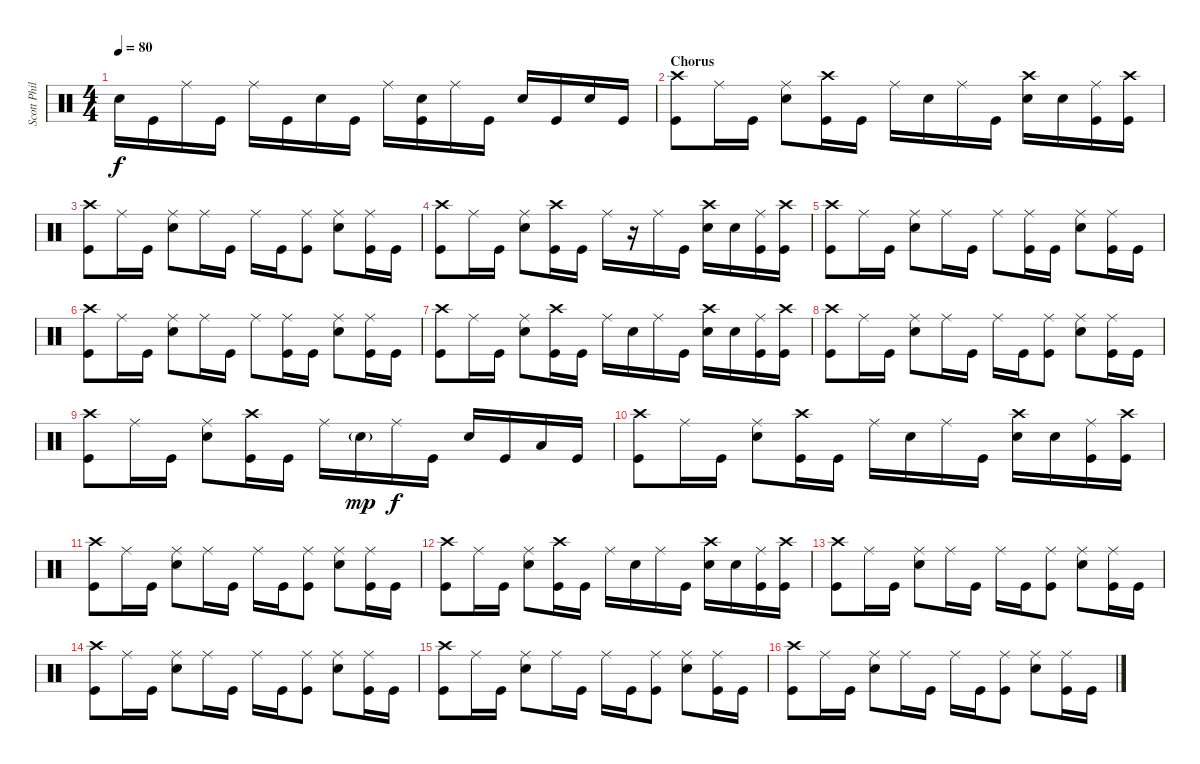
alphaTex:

\track ("Scott Phillips" "Scott Phil") {instrument percussion}
\staff {score}
\articulation defaults
\ts (4 4)
\tempo 80
\clef neutral
\ks c "Snare (hit) 2".16{dy f} "Kick (hit)".16 "Ride (middle)".16 "Kick (hit)".16 "Ride (middle)".16 "Kick (hit)".16 "Snare (hit) 2".16 "Kick (hit)".16 "Ride (middle)".16
("Snare (hit) 2" "Kick (hit)").16 "Ride (middle)".16 "Kick (hit)".16 "Snare (hit) 2".16 "Kick (hit)".16 "Snare (hit) 2".16 "Kick (hit)".16 |
\section ("" "Chorus")
("Crash high (hit)" "Kick (hit)").8 "Ride (middle)".16 "Kick (hit)".16 ("Ride (middle)" "Snare (hit) 2").8 ("Crash high (hit)" "Kick (hit)").16 "Kick (hit)".16 "Ride (middle)".16 "Snare (hit) 2".16 "Ride (middle)".16 "Kick (hit)".16 ("Crash high (hit)" "Snare (hit) 2").16 "Snare (hit) 2".16 ("Ride (middle)" "Kick (hit)").16 ("Crash high (hit)" "Kick (hit)").16 |
("Crash high (hit)" "Kick (hit)").8 "Ride (middle)".16 "Kick (hit)".16 ("Ride (middle)" "Snare (hit) 2").8 "Ride (middle)".16 "Kick (hit)".16 "Ride (middle)".16 "Kick (hit)".16 ("Ride (middle)" "Kick (hit)").8 ("Ride (middle)" "Snare (hit) 2").8 ("Ride (middle)" "Kick (hit)").16 "Kick (hit)".16 |
("Crash high (hit)" "Kick (hit)").8 "Ride (middle)".16 "Kick (hit)".16 ("Ride (middle)" "Snare (hit) 2").8 ("Crash high (hit)" "Kick (hit)").16 "Kick (hit)".16 "Ride (middle)".16 r.16 "Ride (middle)".16 "Kick (hit)".16 ("Crash high (hit)" "Snare (hit) 2").16 "Snare (hit) 2".16 ("Ride (middle)" "Kick (hit)").16 ("Crash high (hit)" "Kick (hit)").16 |
("Crash high (hit)" "Kick (hit)").8 "Ride (middle)".16 "Kick (hit)".16 ("Ride (middle)" "Snare (hit) 2").8 "Ride (middle)".16 "Kick (hit)".16 "Ride (middle)".8 ("Ride (middle)" "Kick (hit)").16 "Kick (hit)".16 ("Ride (middle)" "Snare (hit) 2").8 ("Ride (middle)" "Kick (hit)").16 "Kick (hit)".16 |
("Crash high (hit)" "Kick (hit)").8 "Ride (middle)".16 "Kick (hit)".16 ("Ride (middle)" "Snare (hit) 2").8 "Ride (middle)".16 "Kick (hit)".16 "Ride (middle)".8 ("Ride (middle)" "Kick (hit)").16 "Kick (hit)".16 ("Ride (middle)" "Snare (hit) 2").8 ("Ride (middle)" "Kick (hit)").16 "Kick (hit)".16 |
("Crash high (hit)" "Kick (hit)").8 "Ride (middle)".16 "Kick (hit)".16 ("Ride (middle)" "Snare (hit) 2").8 ("Crash high (hit)" "Kick (hit)").16 "Kick (hit)".16 "Ride (middle)".16 "Snare (hit) 2".16 "Ride (middle)".16 "Kick (hit)".16 ("Crash high (hit)" "Snare (hit) 2").16 "Snare (hit) 2".16 ("Ride (middle)" "Kick (hit)").16 ("Crash high (hit)" "Kick (hit)").16 |
("Crash high (hit)" "Kick (hit)").8 "Ride (middle)".16 "Kick (hit)".16 ("Ride (middle)" "Snare (hit) 2").8 "Ride (middle)".16 "Kick (hit)".16 "Ride (middle)".16 "Kick (hit)".16 ("Ride (middle)" "Kick (hit)").8 ("Ride (middle)" "Snare (hit) 2").8 ("Ride (middle)" "Kick (hit)").16 "Kick (hit)".16 |
("Crash high (hit)" "Kick (hit)").8 "Ride (middle)".16 "Kick (hit)".16 ("Ride (middle)" "Snare (hit) 2").8 ("Crash high (hit)" "Kick (hit)").16 "Kick (hit)".16 "Ride (middle)".16 "Snare (hit) 2"{g}.16{dy mp} "Ride (middle)".16{dy f} "Kick (hit)".16 "Snare (hit) 2".16 "Kick (hit)".16 "Low Tom (hit)".16 "Kick (hit)".16 |
("Crash high (hit)" "Kick (hit)").8 "Ride (middle)".16 "Kick (hit)".16 ("Ride (middle)" "Snare (hit) 2").8 ("Crash high (hit)" "Kick (hit)").16 "Kick (hit)".16 "Ride (middle)".16 "Snare (hit) 2".16 "Ride (middle)".16 "Kick (hit)".16 ("Crash high (hit)" "Snare (hit) 2").16 "Snare (hit) 2".16 ("Ride (middle)" "Kick (hit)").16 ("Crash high (hit)" "Kick (hit)").16 |
("Crash high (hit)" "Kick (hit)").8 "Ride (middle)".16 "Kick (hit)".16 ("Ride (middle)" "Snare (hit) 2").8 "Ride (middle)".16 "Kick (hit)".16 "Ride (middle)".16 "Kick (hit)".16 ("Ride (middle)" "Kick (hit)").8 ("Ride (middle)" "Snare (hit) 2").8 ("Ride (middle)" "Kick (hit)").16 "Kick (hit)".16 |
("Crash high (hit)" "Kick (hit)").8 "Ride (middle)".16 "Kick (hit)".16 ("Ride (middle)" "Snare (hit) 2").8 ("Crash high (hit)" "Kick (hit)").16 "Kick (hit)".16 "Ride (middle)".16 "Snare (hit) 2".16 "Ride (middle)".16 "Kick (hit)".16 ("Crash high (hit)" "Snare (hit) 2").16 "Snare (hit) 2".16 ("Ride (middle)" "Kick (hit)").16 ("Crash high (hit)" "Kick (hit)").16 |
("Crash high (hit)" "Kick (hit)").8 "Ride (middle)".16 "Kick (hit)".16 ("Ride (middle)" "Snare (hit) 2").8 "Ride (middle)".16 "Kick (hit)".16 "Ride (middle)".16 "Kick (hit)".16 ("Ride (middle)" "Kick (hit)").8 ("Ride (middle)" "Snare (hit) 2").8 ("Ride (middle)" "Kick (hit)").16 "Kick (hit)".16 |
("Crash high (hit)" "Kick (hit)").8 "Ride (middle)".16 "Kick (hit)".16 ("Ride (middle)" "Snare (hit) 2").8 "Ride (middle)".16 "Kick (hit)".16 "Ride (middle)".16 "Kick (hit)".16 ("Ride (middle)" "Kick (hit)").8 ("Ride (middle)" "Snare (hit) 2").8 ("Ride (middle)" "Kick (hit)").16 "Kick (hit)".16 |
("Crash high (hit)" "Kick (hit)").8 "Ride (middle)".16 "Kick (hit)".16 ("Ride (middle)" "Snare (hit) 2").8 "Ride (middle)".16 "Kick (hit)".16 "Ride (middle)".16 "Kick (hit)".16 ("Ride (middle)" "Kick (hit)").8 ("Ride (middle)" "Snare (hit) 2").8 ("Ride (middle)" "Kick (hit)").16 "Kick (hit)".16 |
("Crash high (hit)" "Kick (hit)").8 "Ride (middle)".16 "Kick (hit)".16 ("Ride (middle)" "Snare (hit) 2").8 "Ride (middle)".16 "Kick (hit)".16 "Ride (middle)".16 "Kick (hit)".16 ("Ride (middle)" "Kick (hit)").8 ("Ride (middle)" "Snare (hit) 2").8 ("Ride (middle)" "Kick (hit)").16 "Kick (hit)".16
